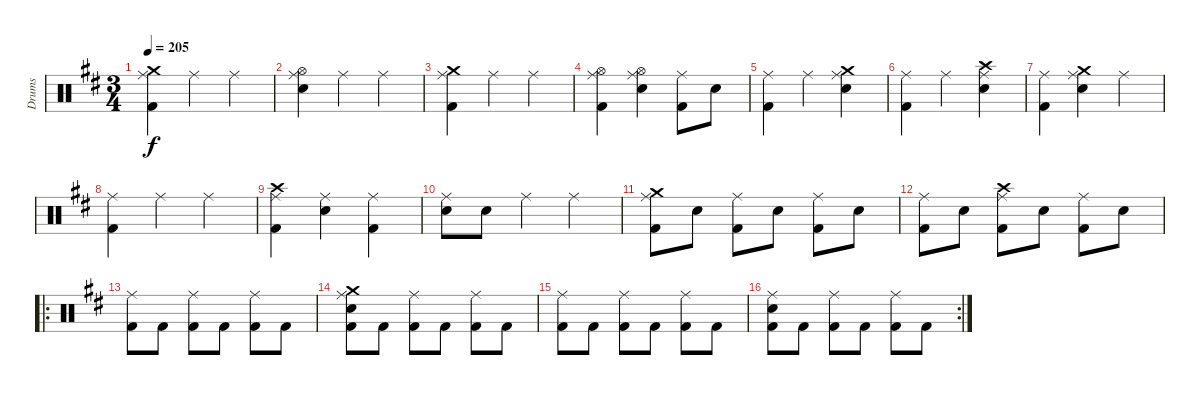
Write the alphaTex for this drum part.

\track ("Drums" "Drums") {instrument percussion}
\staff {score}
\articulation defaults
\ts (3 4)
\tempo 205
\clef neutral
\ks d
("Crash medium (hit)" "Ride (middle)" "Kick (hit) 2").4{dy f} "Ride (middle)".4 "Ride (middle)".4 |
("Hi-Hat (open)" "Ride (middle)" "Electric Snare (hit)").4 "Ride (middle)".4 "Ride (middle)".4 |
("Crash medium (hit)" "Ride (middle)" "Kick (hit) 2").4 "Ride (middle)".4 "Ride (middle)".4 |
("Hi-Hat (open)" "Ride (middle)" "Kick (hit) 2").4 ("Hi-Hat (open)" "Ride (middle)" "Electric Snare (hit)").4 ("Ride (middle)" "Kick (hit) 2").8 "Electric Snare (hit)".8 |
("Ride (middle)" "Kick (hit) 2").4 "Ride (middle)".4 ("Crash medium (hit)" "Ride (middle)" "Electric Snare (hit)").4 |
("Ride (middle)" "Kick (hit) 2").4 "Ride (middle)".4 ("Crash high (hit)" "Ride (middle)" "Electric Snare (hit)").4 |
("Ride (middle)" "Kick (hit) 2").4 ("Crash medium (hit)" "Ride (middle)" "Electric Snare (hit)").4 "Ride (middle)".4 |
("Ride (middle)" "Kick (hit) 2").4 "Ride (middle)".4 "Ride (middle)".4 |
("Crash high (hit)" "Ride (middle)" "Kick (hit) 2").4 ("Ride (middle)" "Electric Snare (hit)").4 ("Ride (middle)" "Kick (hit) 2").4 |
("Ride (middle)" "Electric Snare (hit)").8 "Electric Snare (hit)".8 "Ride (middle)".4 "Ride (middle)".4 |
("Crash medium (hit)" "Ride (middle)" "Kick (hit) 2").8 "Electric Snare (hit)".8 ("Ride (middle)" "Kick (hit) 2").8 "Electric Snare (hit)".8 ("Ride (middle)" "Kick (hit) 2").8 "Electric Snare (hit)".8 |
("Ride (middle)" "Kick (hit) 2").8 "Electric Snare (hit)".8 ("Crash high (hit)" "Ride (middle)" "Kick (hit) 2").8 "Electric Snare (hit)".8 ("Ride (middle)" "Kick (hit) 2").8 "Electric Snare (hit)".8 |
\ro
("Ride (middle)" "Kick (hit) 2").8 "Kick (hit) 2".8 ("Ride (middle)" "Kick (hit) 2").8 "Kick (hit) 2".8 ("Ride (middle)" "Kick (hit) 2").8 "Kick (hit) 2".8 |
("Crash medium (hit)" "Ride (middle)" "Electric Snare (hit)" "Kick (hit) 2").8 "Kick (hit) 2".8 ("Ride (middle)" "Kick (hit) 2").8 "Kick (hit) 2".8 ("Ride (middle)" "Kick (hit) 2").8 "Kick (hit) 2".8 |
("Ride (middle)" "Kick (hit) 2").8 "Kick (hit) 2".8 ("Ride (middle)" "Kick (hit) 2").8 "Kick (hit) 2".8 ("Ride (middle)" "Kick (hit) 2").8 "Kick (hit) 2".8 |
\rc 2
("Ride (middle)" "Electric Snare (hit)" "Kick (hit) 2").8 "Kick (hit) 2".8 ("Ride (middle)" "Kick (hit) 2").8 "Kick (hit) 2".8 ("Ride (middle)" "Kick (hit) 2").8 "Kick (hit) 2".8
